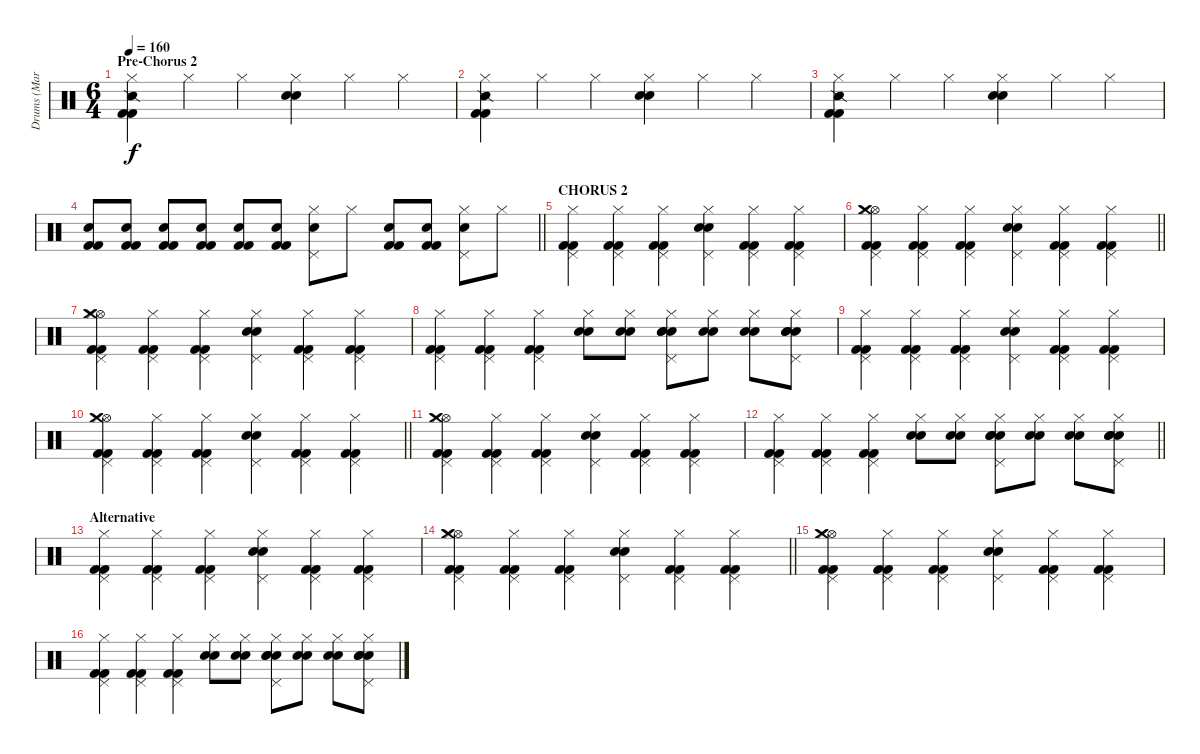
\track ("Drums (Marc Allen)" "Drums (Mar") {instrument percussion}
\staff {score}
\articulation defaults
\ts (6 4)
\section ("" "Pre-Chorus 2")
\tempo 160
\clef neutral
\ks c
("Hi-Hat (closed)" "Kick (hit) 2" "Kick (hit) 2" "Snare (side stick) 2").4{dy f} "Hi-Hat (closed)".4 "Hi-Hat (closed)".4 ("Hi-Hat (closed)" "Electric Snare (hit)" "Electric Snare (hit)").4 "Hi-Hat (closed)".4 "Hi-Hat (closed)".4 |
("Hi-Hat (closed)" "Kick (hit) 2" "Kick (hit) 2" "Snare (side stick) 2").4 "Hi-Hat (closed)".4 "Hi-Hat (closed)".4 ("Hi-Hat (closed)" "Electric Snare (hit)" "Electric Snare (hit)").4 "Hi-Hat (closed)".4 "Hi-Hat (closed)".4 |
("Hi-Hat (closed)" "Kick (hit) 2" "Kick (hit) 2" "Snare (side stick) 2").4 "Hi-Hat (closed)".4 "Hi-Hat (closed)".4 ("Hi-Hat (closed)" "Electric Snare (hit)" "Electric Snare (hit)").4 "Hi-Hat (closed)".4 "Hi-Hat (closed)".4 |
\barLineRight lightlight
("Kick (hit) 2" "Electric Snare (hit)" "Kick (hit) 2").8 ("Kick (hit) 2" "Electric Snare (hit)" "Kick (hit) 2").8 ("Kick (hit) 2" "Electric Snare (hit)" "Kick (hit) 2").8 ("Kick (hit) 2" "Electric Snare (hit)" "Kick (hit) 2").8 ("Kick (hit) 2" "Electric Snare (hit)" "Kick (hit) 2").8 ("Kick (hit) 2" "Electric Snare (hit)" "Kick (hit) 2").8 ("Pedal Hi-Hat (hit)" "Hi-Hat (closed)" "Electric Snare (hit)").8 "Hi-Hat (closed)".8 ("Kick (hit) 2" "Electric Snare (hit)" "Kick (hit) 2").8 ("Kick (hit) 2" "Electric Snare (hit)" "Kick (hit) 2").8 ("Pedal Hi-Hat (hit)" "Hi-Hat (closed)" "Electric Snare (hit)").8 "Hi-Hat (closed)".8 |
\section ("" "CHORUS 2")
("Pedal Hi-Hat (hit)" "Hi-Hat (closed)" "Kick (hit) 2" "Kick (hit) 2").4 ("Pedal Hi-Hat (hit)" "Hi-Hat (closed)" "Kick (hit) 2" "Kick (hit) 2").4 ("Pedal Hi-Hat (hit)" "Hi-Hat (closed)" "Kick (hit) 2" "Kick (hit) 2").4 ("Pedal Hi-Hat (hit)" "Hi-Hat (closed)" "Electric Snare (hit)" "Electric Snare (hit)").4 ("Pedal Hi-Hat (hit)" "Hi-Hat (closed)" "Kick (hit) 2" "Kick (hit) 2").4 ("Pedal Hi-Hat (hit)" "Hi-Hat (closed)" "Kick (hit) 2" "Kick (hit) 2").4 |
\barLineRight lightlight
("Pedal Hi-Hat (hit)" "Hi-Hat (open)" "Hi-Hat (closed)" "Crash medium (hit)" "Kick (hit) 2" "Kick (hit) 2").4 ("Pedal Hi-Hat (hit)" "Hi-Hat (closed)" "Kick (hit) 2" "Kick (hit) 2").4 ("Pedal Hi-Hat (hit)" "Hi-Hat (closed)" "Kick (hit) 2" "Kick (hit) 2").4 ("Pedal Hi-Hat (hit)" "Hi-Hat (closed)" "Electric Snare (hit)" "Electric Snare (hit)").4 ("Pedal Hi-Hat (hit)" "Hi-Hat (closed)" "Kick (hit) 2" "Kick (hit) 2").4 ("Pedal Hi-Hat (hit)" "Hi-Hat (closed)" "Kick (hit) 2" "Kick (hit) 2").4 |
("Pedal Hi-Hat (hit)" "Hi-Hat (open)" "Hi-Hat (closed)" "Crash medium (hit)" "Kick (hit) 2" "Kick (hit) 2").4 ("Pedal Hi-Hat (hit)" "Hi-Hat (closed)" "Kick (hit) 2" "Kick (hit) 2").4 ("Pedal Hi-Hat (hit)" "Hi-Hat (closed)" "Kick (hit) 2" "Kick (hit) 2").4 ("Pedal Hi-Hat (hit)" "Hi-Hat (closed)" "Electric Snare (hit)" "Electric Snare (hit)").4 ("Pedal Hi-Hat (hit)" "Hi-Hat (closed)" "Kick (hit) 2" "Kick (hit) 2").4 ("Pedal Hi-Hat (hit)" "Hi-Hat (closed)" "Kick (hit) 2" "Kick (hit) 2").4 |
("Pedal Hi-Hat (hit)" "Hi-Hat (closed)" "Kick (hit) 2" "Kick (hit) 2").4 ("Pedal Hi-Hat (hit)" "Hi-Hat (closed)" "Kick (hit) 2" "Kick (hit) 2").4 ("Pedal Hi-Hat (hit)" "Hi-Hat (closed)" "Kick (hit) 2" "Kick (hit) 2").4 ("Hi-Hat (closed)" "Electric Snare (hit)" "Electric Snare (hit)").8 ("Hi-Hat (closed)" "Electric Snare (hit)" "Electric Snare (hit)").8 ("Hi-Hat (closed)" "Pedal Hi-Hat (hit)" "Electric Snare (hit)" "Electric Snare (hit)" "Snare (hit) 2").8 ("Hi-Hat (closed)" "Electric Snare (hit)" "Electric Snare (hit)").8 ("Hi-Hat (closed)" "Electric Snare (hit)" "Electric Snare (hit)").8 ("Hi-Hat (closed)" "Pedal Hi-Hat (hit)" "Electric Snare (hit)" "Electric Snare (hit)" "Snare (hit) 2").8 |
("Pedal Hi-Hat (hit)" "Hi-Hat (closed)" "Kick (hit) 2" "Kick (hit) 2").4 ("Pedal Hi-Hat (hit)" "Hi-Hat (closed)" "Kick (hit) 2" "Kick (hit) 2").4 ("Pedal Hi-Hat (hit)" "Hi-Hat (closed)" "Kick (hit) 2" "Kick (hit) 2").4 ("Pedal Hi-Hat (hit)" "Hi-Hat (closed)" "Electric Snare (hit)" "Electric Snare (hit)").4 ("Pedal Hi-Hat (hit)" "Hi-Hat (closed)" "Kick (hit) 2" "Kick (hit) 2").4 ("Pedal Hi-Hat (hit)" "Hi-Hat (closed)" "Kick (hit) 2" "Kick (hit) 2").4 |
\barLineRight lightlight
("Pedal Hi-Hat (hit)" "Hi-Hat (open)" "Hi-Hat (closed)" "Crash medium (hit)" "Kick (hit) 2" "Kick (hit) 2").4 ("Pedal Hi-Hat (hit)" "Hi-Hat (closed)" "Kick (hit) 2" "Kick (hit) 2").4 ("Pedal Hi-Hat (hit)" "Hi-Hat (closed)" "Kick (hit) 2" "Kick (hit) 2").4 ("Pedal Hi-Hat (hit)" "Hi-Hat (closed)" "Electric Snare (hit)" "Electric Snare (hit)").4 ("Pedal Hi-Hat (hit)" "Hi-Hat (closed)" "Kick (hit) 2" "Kick (hit) 2").4 ("Pedal Hi-Hat (hit)" "Hi-Hat (closed)" "Kick (hit) 2" "Kick (hit) 2").4 |
("Pedal Hi-Hat (hit)" "Hi-Hat (open)" "Hi-Hat (closed)" "Crash medium (hit)" "Kick (hit) 2" "Kick (hit) 2").4 ("Pedal Hi-Hat (hit)" "Hi-Hat (closed)" "Kick (hit) 2" "Kick (hit) 2").4 ("Pedal Hi-Hat (hit)" "Hi-Hat (closed)" "Kick (hit) 2" "Kick (hit) 2").4 ("Pedal Hi-Hat (hit)" "Hi-Hat (closed)" "Electric Snare (hit)" "Electric Snare (hit)").4 ("Pedal Hi-Hat (hit)" "Hi-Hat (closed)" "Kick (hit) 2" "Kick (hit) 2").4 ("Pedal Hi-Hat (hit)" "Hi-Hat (closed)" "Kick (hit) 2" "Kick (hit) 2").4 |
\barLineRight lightlight
("Pedal Hi-Hat (hit)" "Hi-Hat (closed)" "Kick (hit) 2" "Kick (hit) 2").4 ("Pedal Hi-Hat (hit)" "Hi-Hat (closed)" "Kick (hit) 2" "Kick (hit) 2").4 ("Pedal Hi-Hat (hit)" "Hi-Hat (closed)" "Kick (hit) 2" "Kick (hit) 2").4 ("Hi-Hat (closed)" "Electric Snare (hit)" "Electric Snare (hit)").8 ("Hi-Hat (closed)" "Electric Snare (hit)" "Electric Snare (hit)").8 ("Hi-Hat (closed)" "Pedal Hi-Hat (hit)" "Electric Snare (hit)" "Electric Snare (hit)" "Snare (hit) 2").8 ("Hi-Hat (closed)" "Electric Snare (hit)" "Electric Snare (hit)").8 ("Hi-Hat (closed)" "Electric Snare (hit)" "Electric Snare (hit)").8 ("Hi-Hat (closed)" "Pedal Hi-Hat (hit)" "Electric Snare (hit)" "Electric Snare (hit)" "Snare (hit) 2").8 |
\section ("" "Alternative")
("Pedal Hi-Hat (hit)" "Hi-Hat (closed)" "Kick (hit) 2" "Kick (hit) 2").4 ("Pedal Hi-Hat (hit)" "Hi-Hat (closed)" "Kick (hit) 2" "Kick (hit) 2").4 ("Pedal Hi-Hat (hit)" "Hi-Hat (closed)" "Kick (hit) 2" "Kick (hit) 2").4 ("Pedal Hi-Hat (hit)" "Hi-Hat (closed)" "Electric Snare (hit)" "Electric Snare (hit)").4 ("Pedal Hi-Hat (hit)" "Hi-Hat (closed)" "Kick (hit) 2" "Kick (hit) 2").4 ("Pedal Hi-Hat (hit)" "Hi-Hat (closed)" "Kick (hit) 2" "Kick (hit) 2").4 |
\barLineRight lightlight
("Pedal Hi-Hat (hit)" "Hi-Hat (open)" "Hi-Hat (closed)" "Crash medium (hit)" "Kick (hit) 2" "Kick (hit) 2").4 ("Pedal Hi-Hat (hit)" "Hi-Hat (closed)" "Kick (hit) 2" "Kick (hit) 2").4 ("Pedal Hi-Hat (hit)" "Hi-Hat (closed)" "Kick (hit) 2" "Kick (hit) 2").4 ("Pedal Hi-Hat (hit)" "Hi-Hat (closed)" "Electric Snare (hit)" "Electric Snare (hit)").4 ("Pedal Hi-Hat (hit)" "Hi-Hat (closed)" "Kick (hit) 2" "Kick (hit) 2").4 ("Pedal Hi-Hat (hit)" "Hi-Hat (closed)" "Kick (hit) 2" "Kick (hit) 2").4 |
("Pedal Hi-Hat (hit)" "Hi-Hat (open)" "Hi-Hat (closed)" "Crash medium (hit)" "Kick (hit) 2" "Kick (hit) 2").4 ("Pedal Hi-Hat (hit)" "Hi-Hat (closed)" "Kick (hit) 2" "Kick (hit) 2").4 ("Pedal Hi-Hat (hit)" "Hi-Hat (closed)" "Kick (hit) 2" "Kick (hit) 2").4 ("Pedal Hi-Hat (hit)" "Hi-Hat (closed)" "Electric Snare (hit)" "Electric Snare (hit)").4 ("Pedal Hi-Hat (hit)" "Hi-Hat (closed)" "Kick (hit) 2" "Kick (hit) 2").4 ("Pedal Hi-Hat (hit)" "Hi-Hat (closed)" "Kick (hit) 2" "Kick (hit) 2").4 |
("Pedal Hi-Hat (hit)" "Hi-Hat (closed)" "Kick (hit) 2" "Kick (hit) 2").4 ("Pedal Hi-Hat (hit)" "Hi-Hat (closed)" "Kick (hit) 2" "Kick (hit) 2").4 ("Pedal Hi-Hat (hit)" "Hi-Hat (closed)" "Kick (hit) 2" "Kick (hit) 2").4 ("Hi-Hat (closed)" "Electric Snare (hit)" "Electric Snare (hit)").8 ("Hi-Hat (closed)" "Electric Snare (hit)" "Electric Snare (hit)").8 ("Hi-Hat (closed)" "Pedal Hi-Hat (hit)" "Electric Snare (hit)" "Electric Snare (hit)" "Snare (hit) 2").8 ("Hi-Hat (closed)" "Electric Snare (hit)" "Electric Snare (hit)").8 ("Hi-Hat (closed)" "Electric Snare (hit)" "Electric Snare (hit)").8 ("Hi-Hat (closed)" "Pedal Hi-Hat (hit)" "Electric Snare (hit)" "Electric Snare (hit)" "Snare (hit) 2").8
